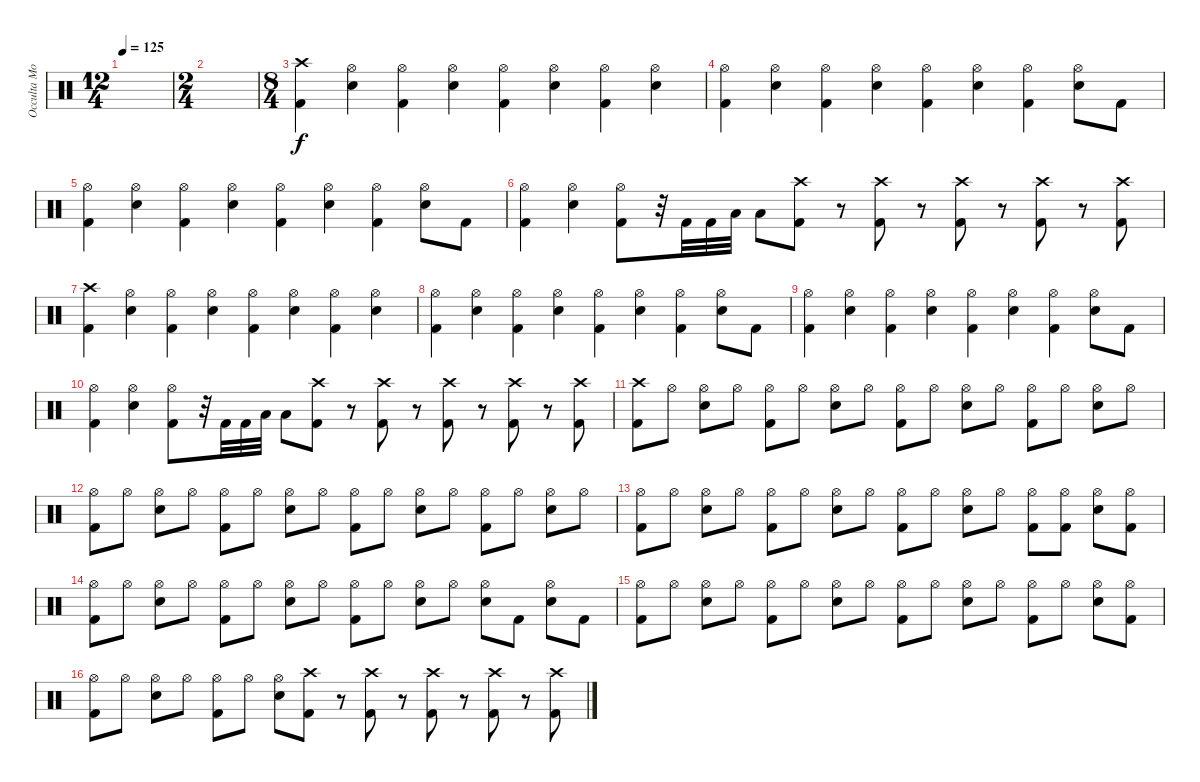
\track ("Occulta Mors" "Occulta Mo") {instrument percussion}
\staff {score}
\articulation defaults
\ts (12 4)
\tempo 125
\clef neutral
\ks c
|
\ts (2 4)
|
\ts (8 4)
("Crash high (hit)" "Kick (hit) 2").4 ("Hi-Hat (open)" "Snare (hit) 2").4 ("Hi-Hat (open)" "Kick (hit) 2").4 ("Hi-Hat (open)" "Snare (hit) 2").4 ("Hi-Hat (open)" "Kick (hit) 2").4 ("Hi-Hat (open)" "Snare (hit) 2").4 ("Hi-Hat (open)" "Kick (hit) 2").4 ("Hi-Hat (open)" "Snare (hit) 2").4 |
("Hi-Hat (open)" "Kick (hit) 2").4 ("Hi-Hat (open)" "Snare (hit) 2").4 ("Hi-Hat (open)" "Kick (hit) 2").4 ("Hi-Hat (open)" "Snare (hit) 2").4 ("Hi-Hat (open)" "Kick (hit) 2").4 ("Hi-Hat (open)" "Snare (hit) 2").4 ("Hi-Hat (open)" "Kick (hit) 2").4 ("Hi-Hat (open)" "Snare (hit) 2").8 "Kick (hit) 2".8 |
("Hi-Hat (open)" "Kick (hit) 2").4 ("Hi-Hat (open)" "Snare (hit) 2").4 ("Hi-Hat (open)" "Kick (hit) 2").4 ("Hi-Hat (open)" "Snare (hit) 2").4 ("Hi-Hat (open)" "Kick (hit) 2").4 ("Hi-Hat (open)" "Snare (hit) 2").4 ("Hi-Hat (open)" "Kick (hit) 2").4 ("Hi-Hat (open)" "Snare (hit) 2").8 "Kick (hit) 2".8 |
("Hi-Hat (open)" "Kick (hit) 2").4 ("Hi-Hat (open)" "Snare (hit) 2").4 ("Hi-Hat (open)" "Kick (hit) 2").8 r.32 "Kick (hit) 2".32 "Kick (hit) 2".32 "Low Floor Tom (hit)".32 "Low Floor Tom (hit)".8 ("Crash high (hit)" "Kick (hit) 2").8 r.8 ("Crash high (hit)" "Kick (hit) 2").8 r.8 ("Crash high (hit)" "Kick (hit) 2").8 r.8 ("Crash high (hit)" "Kick (hit) 2").8 r.8 ("Crash high (hit)" "Kick (hit) 2").8 |
("Crash high (hit)" "Kick (hit) 2").4 ("Hi-Hat (open)" "Snare (hit) 2").4 ("Hi-Hat (open)" "Kick (hit) 2").4 ("Hi-Hat (open)" "Snare (hit) 2").4 ("Hi-Hat (open)" "Kick (hit) 2").4 ("Hi-Hat (open)" "Snare (hit) 2").4 ("Hi-Hat (open)" "Kick (hit) 2").4 ("Hi-Hat (open)" "Snare (hit) 2").4 |
("Hi-Hat (open)" "Kick (hit) 2").4 ("Hi-Hat (open)" "Snare (hit) 2").4 ("Hi-Hat (open)" "Kick (hit) 2").4 ("Hi-Hat (open)" "Snare (hit) 2").4 ("Hi-Hat (open)" "Kick (hit) 2").4 ("Hi-Hat (open)" "Snare (hit) 2").4 ("Hi-Hat (open)" "Kick (hit) 2").4 ("Hi-Hat (open)" "Snare (hit) 2").8 "Kick (hit) 2".8 |
("Hi-Hat (open)" "Kick (hit) 2").4 ("Hi-Hat (open)" "Snare (hit) 2").4 ("Hi-Hat (open)" "Kick (hit) 2").4 ("Hi-Hat (open)" "Snare (hit) 2").4 ("Hi-Hat (open)" "Kick (hit) 2").4 ("Hi-Hat (open)" "Snare (hit) 2").4 ("Hi-Hat (open)" "Kick (hit) 2").4 ("Hi-Hat (open)" "Snare (hit) 2").8 "Kick (hit) 2".8 |
("Hi-Hat (open)" "Kick (hit) 2").4 ("Hi-Hat (open)" "Snare (hit) 2").4 ("Hi-Hat (open)" "Kick (hit) 2").8 r.32 "Kick (hit) 2".32 "Kick (hit) 2".32 "Low Floor Tom (hit)".32 "Low Floor Tom (hit)".8 ("Crash high (hit)" "Kick (hit) 2").8 r.8 ("Crash high (hit)" "Kick (hit) 2").8 r.8 ("Crash high (hit)" "Kick (hit) 2").8 r.8 ("Crash high (hit)" "Kick (hit) 2").8 r.8 ("Crash high (hit)" "Kick (hit) 2").8 |
("Crash high (hit)" "Kick (hit) 2").8 "Hi-Hat (open)".8 ("Hi-Hat (open)" "Snare (hit) 2").8 "Hi-Hat (open)".8 ("Hi-Hat (open)" "Kick (hit) 2").8 "Hi-Hat (open)".8 ("Hi-Hat (open)" "Snare (hit) 2").8 "Hi-Hat (open)".8 ("Hi-Hat (open)" "Kick (hit) 2").8 "Hi-Hat (open)".8 ("Hi-Hat (open)" "Snare (hit) 2").8 "Hi-Hat (open)".8 ("Hi-Hat (open)" "Kick (hit) 2").8 "Hi-Hat (open)".8 ("Hi-Hat (open)" "Snare (hit) 2").8 "Hi-Hat (open)".8 |
("Hi-Hat (open)" "Kick (hit) 2").8 "Hi-Hat (open)".8 ("Hi-Hat (open)" "Snare (hit) 2").8 "Hi-Hat (open)".8 ("Hi-Hat (open)" "Kick (hit) 2").8 "Hi-Hat (open)".8 ("Hi-Hat (open)" "Snare (hit) 2").8 "Hi-Hat (open)".8 ("Hi-Hat (open)" "Kick (hit) 2").8 "Hi-Hat (open)".8 ("Hi-Hat (open)" "Snare (hit) 2").8 "Hi-Hat (open)".8 ("Hi-Hat (open)" "Kick (hit) 2").8 "Hi-Hat (open)".8 ("Hi-Hat (open)" "Snare (hit) 2").8 "Hi-Hat (open)".8 |
("Hi-Hat (open)" "Kick (hit) 2").8 "Hi-Hat (open)".8 ("Hi-Hat (open)" "Snare (hit) 2").8 "Hi-Hat (open)".8 ("Hi-Hat (open)" "Kick (hit) 2").8 "Hi-Hat (open)".8 ("Hi-Hat (open)" "Snare (hit) 2").8 "Hi-Hat (open)".8 ("Hi-Hat (open)" "Kick (hit) 2").8 "Hi-Hat (open)".8 ("Hi-Hat (open)" "Snare (hit) 2").8 "Hi-Hat (open)".8 ("Hi-Hat (open)" "Kick (hit) 2").8 ("Hi-Hat (open)" "Kick (hit) 2").8 ("Hi-Hat (open)" "Snare (hit) 2").8 ("Hi-Hat (open)" "Kick (hit) 2").8 |
("Hi-Hat (open)" "Kick (hit) 2").8 "Hi-Hat (open)".8 ("Hi-Hat (open)" "Snare (hit) 2").8 "Hi-Hat (open)".8 ("Hi-Hat (open)" "Kick (hit) 2").8 "Hi-Hat (open)".8 ("Hi-Hat (open)" "Snare (hit) 2").8 "Hi-Hat (open)".8 ("Hi-Hat (open)" "Kick (hit) 2").8 "Hi-Hat (open)".8 ("Hi-Hat (open)" "Snare (hit) 2").8 "Hi-Hat (open)".8 ("Hi-Hat (open)" "Snare (hit) 2").8 "Kick (hit) 2".8 ("Hi-Hat (open)" "Snare (hit) 2").8 "Kick (hit) 2".8 |
("Hi-Hat (open)" "Kick (hit) 2").8 "Hi-Hat (open)".8 ("Hi-Hat (open)" "Snare (hit) 2").8 "Hi-Hat (open)".8 ("Hi-Hat (open)" "Kick (hit) 2").8 "Hi-Hat (open)".8 ("Hi-Hat (open)" "Snare (hit) 2").8 "Hi-Hat (open)".8 ("Hi-Hat (open)" "Kick (hit) 2").8 "Hi-Hat (open)".8 ("Hi-Hat (open)" "Snare (hit) 2").8 "Hi-Hat (open)".8 ("Hi-Hat (open)" "Kick (hit) 2").8 "Hi-Hat (open)".8 ("Hi-Hat (open)" "Snare (hit) 2").8 ("Hi-Hat (open)" "Kick (hit) 2").8 |
("Hi-Hat (open)" "Kick (hit) 2").8 "Hi-Hat (open)".8 ("Hi-Hat (open)" "Snare (hit) 2").8 "Hi-Hat (open)".8 ("Hi-Hat (open)" "Kick (hit) 2").8 "Hi-Hat (open)".8 ("Hi-Hat (open)" "Snare (hit) 2").8 ("Crash high (hit)" "Kick (hit) 2").8 r.8 ("Crash high (hit)" "Kick (hit) 2").8 r.8 ("Crash high (hit)" "Kick (hit) 2").8 r.8 ("Crash high (hit)" "Kick (hit) 2").8 r.8 ("Crash high (hit)" "Kick (hit) 2").8
